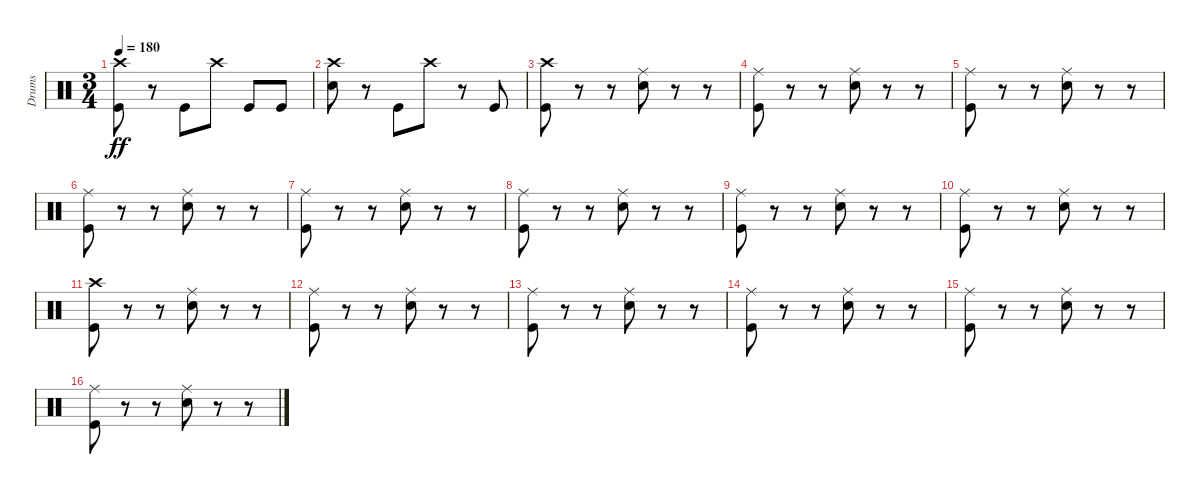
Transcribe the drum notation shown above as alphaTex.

\track ("Drums" "Drums") {instrument percussion}
\staff {score}
\articulation defaults
\ts (3 4)
\tempo 180
\clef neutral
\ks c
("Crash high (hit)" "Kick (hit)").8{dy ff} r.8 "Kick (hit)".8 "Crash high (hit)".8 "Kick (hit)".8 "Kick (hit)".8 |
("Crash high (hit)" "Snare (hit) 2").8 r.8 "Kick (hit)".8 "Crash high (hit)".8 r.8 "Kick (hit)".8 |
("Crash high (hit)" "Kick (hit)").8 r.8 r.8 ("Ride (middle)" "Snare (hit) 2").8 r.8 r.8 |
("Ride (middle)" "Kick (hit)").8 r.8 r.8 ("Ride (middle)" "Snare (hit) 2").8 r.8 r.8 |
("Ride (middle)" "Kick (hit)").8 r.8 r.8 ("Ride (middle)" "Snare (hit) 2").8 r.8 r.8 |
("Ride (middle)" "Kick (hit)").8 r.8 r.8 ("Ride (middle)" "Snare (hit) 2").8 r.8 r.8 |
("Ride (middle)" "Kick (hit)").8 r.8 r.8 ("Ride (middle)" "Snare (hit) 2").8 r.8 r.8 |
("Ride (middle)" "Kick (hit)").8 r.8 r.8 ("Ride (middle)" "Snare (hit) 2").8 r.8 r.8 |
("Ride (middle)" "Kick (hit)").8 r.8 r.8 ("Ride (middle)" "Snare (hit) 2").8 r.8 r.8 |
("Ride (middle)" "Kick (hit)").8 r.8 r.8 ("Ride (middle)" "Snare (hit) 2").8 r.8 r.8 |
("Crash high (hit)" "Kick (hit)").8 r.8 r.8 ("Ride (middle)" "Snare (hit) 2").8 r.8 r.8 |
("Ride (middle)" "Kick (hit)").8 r.8 r.8 ("Ride (middle)" "Snare (hit) 2").8 r.8 r.8 |
("Ride (middle)" "Kick (hit)").8 r.8 r.8 ("Ride (middle)" "Snare (hit) 2").8 r.8 r.8 |
("Ride (middle)" "Kick (hit)").8 r.8 r.8 ("Ride (middle)" "Snare (hit) 2").8 r.8 r.8 |
("Ride (middle)" "Kick (hit)").8 r.8 r.8 ("Ride (middle)" "Snare (hit) 2").8 r.8 r.8 |
("Ride (middle)" "Kick (hit)").8 r.8 r.8 ("Ride (middle)" "Snare (hit) 2").8 r.8 r.8
